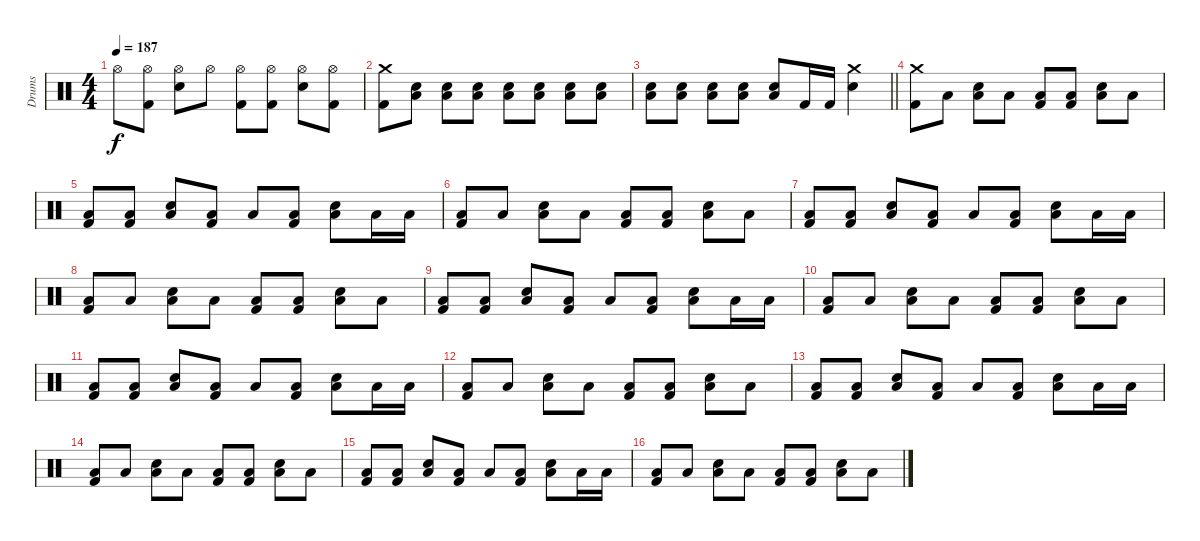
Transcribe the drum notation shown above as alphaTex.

\track ("Drums" "Drums") {instrument percussion}
\staff {score}
\articulation defaults
\ts (4 4)
\tempo 187
\clef neutral
\ks c "Hi-Hat (open)".8{dy f}
("Hi-Hat (open)" "Kick (hit) 2").8 ("Hi-Hat (open)" "Electric Snare (hit)").8 "Hi-Hat (open)".8 ("Hi-Hat (open)" "Kick (hit) 2").8 ("Hi-Hat (open)" "Kick (hit) 2").8 ("Hi-Hat (open)" "Electric Snare (hit)").8 ("Hi-Hat (open)" "Kick (hit) 2").8 |
("Crash medium (hit)" "Kick (hit) 2").8 ("Electric Snare (hit)" "Low Floor Tom (hit)").8 ("Electric Snare (hit)" "Low Floor Tom (hit)").8 ("Electric Snare (hit)" "Low Floor Tom (hit)").8 ("Electric Snare (hit)" "Low Floor Tom (hit)").8 ("Electric Snare (hit)" "Low Floor Tom (hit)").8 ("Electric Snare (hit)" "Low Floor Tom (hit)").8 ("Electric Snare (hit)" "Low Floor Tom (hit)").8 |
\barLineRight lightlight
("Electric Snare (hit)" "Low Floor Tom (hit)").8 ("Electric Snare (hit)" "Low Floor Tom (hit)").8 ("Electric Snare (hit)" "Low Floor Tom (hit)").8 ("Electric Snare (hit)" "Low Floor Tom (hit)").8 ("Electric Snare (hit)" "Low Floor Tom (hit)").8 "Kick (hit) 2".16 "Kick (hit) 2".16 ("Crash medium (hit)" "Electric Snare (hit)").4 |
("Crash medium (hit)" "Kick (hit) 2").8 "Low Floor Tom (hit)".8 ("Electric Snare (hit)" "Low Floor Tom (hit)").8 "Low Floor Tom (hit)".8 ("Low Floor Tom (hit)" "Kick (hit) 2").8 ("Low Floor Tom (hit)" "Kick (hit) 2").8 ("Electric Snare (hit)" "Low Floor Tom (hit)").8 "Low Floor Tom (hit)".8 |
("Low Floor Tom (hit)" "Kick (hit) 2").8 ("Low Floor Tom (hit)" "Kick (hit) 2").8 ("Electric Snare (hit)" "Low Floor Tom (hit)").8 ("Low Floor Tom (hit)" "Kick (hit) 2").8 "Low Floor Tom (hit)".8 ("Low Floor Tom (hit)" "Kick (hit) 2").8 ("Electric Snare (hit)" "Low Floor Tom (hit)").8 "Low Floor Tom (hit)".16 "Low Floor Tom (hit)".16 |
("Low Floor Tom (hit)" "Kick (hit) 2").8 "Low Floor Tom (hit)".8 ("Electric Snare (hit)" "Low Floor Tom (hit)").8 "Low Floor Tom (hit)".8 ("Low Floor Tom (hit)" "Kick (hit) 2").8 ("Low Floor Tom (hit)" "Kick (hit) 2").8 ("Electric Snare (hit)" "Low Floor Tom (hit)").8 "Low Floor Tom (hit)".8 |
("Low Floor Tom (hit)" "Kick (hit) 2").8 ("Low Floor Tom (hit)" "Kick (hit) 2").8 ("Electric Snare (hit)" "Low Floor Tom (hit)").8 ("Low Floor Tom (hit)" "Kick (hit) 2").8 "Low Floor Tom (hit)".8 ("Low Floor Tom (hit)" "Kick (hit) 2").8 ("Electric Snare (hit)" "Low Floor Tom (hit)").8 "Low Floor Tom (hit)".16 "Low Floor Tom (hit)".16 |
("Low Floor Tom (hit)" "Kick (hit) 2").8 "Low Floor Tom (hit)".8 ("Electric Snare (hit)" "Low Floor Tom (hit)").8 "Low Floor Tom (hit)".8 ("Low Floor Tom (hit)" "Kick (hit) 2").8 ("Low Floor Tom (hit)" "Kick (hit) 2").8 ("Electric Snare (hit)" "Low Floor Tom (hit)").8 "Low Floor Tom (hit)".8 |
("Low Floor Tom (hit)" "Kick (hit) 2").8 ("Low Floor Tom (hit)" "Kick (hit) 2").8 ("Electric Snare (hit)" "Low Floor Tom (hit)").8 ("Low Floor Tom (hit)" "Kick (hit) 2").8 "Low Floor Tom (hit)".8 ("Low Floor Tom (hit)" "Kick (hit) 2").8 ("Electric Snare (hit)" "Low Floor Tom (hit)").8 "Low Floor Tom (hit)".16 "Low Floor Tom (hit)".16 |
("Low Floor Tom (hit)" "Kick (hit) 2").8 "Low Floor Tom (hit)".8 ("Electric Snare (hit)" "Low Floor Tom (hit)").8 "Low Floor Tom (hit)".8 ("Low Floor Tom (hit)" "Kick (hit) 2").8 ("Low Floor Tom (hit)" "Kick (hit) 2").8 ("Electric Snare (hit)" "Low Floor Tom (hit)").8 "Low Floor Tom (hit)".8 |
("Low Floor Tom (hit)" "Kick (hit) 2").8 ("Low Floor Tom (hit)" "Kick (hit) 2").8 ("Electric Snare (hit)" "Low Floor Tom (hit)").8 ("Low Floor Tom (hit)" "Kick (hit) 2").8 "Low Floor Tom (hit)".8 ("Low Floor Tom (hit)" "Kick (hit) 2").8 ("Electric Snare (hit)" "Low Floor Tom (hit)").8 "Low Floor Tom (hit)".16 "Low Floor Tom (hit)".16 |
("Low Floor Tom (hit)" "Kick (hit) 2").8 "Low Floor Tom (hit)".8 ("Electric Snare (hit)" "Low Floor Tom (hit)").8 "Low Floor Tom (hit)".8 ("Low Floor Tom (hit)" "Kick (hit) 2").8 ("Low Floor Tom (hit)" "Kick (hit) 2").8 ("Electric Snare (hit)" "Low Floor Tom (hit)").8 "Low Floor Tom (hit)".8 |
("Low Floor Tom (hit)" "Kick (hit) 2").8 ("Low Floor Tom (hit)" "Kick (hit) 2").8 ("Electric Snare (hit)" "Low Floor Tom (hit)").8 ("Low Floor Tom (hit)" "Kick (hit) 2").8 "Low Floor Tom (hit)".8 ("Low Floor Tom (hit)" "Kick (hit) 2").8 ("Electric Snare (hit)" "Low Floor Tom (hit)").8 "Low Floor Tom (hit)".16 "Low Floor Tom (hit)".16 |
("Low Floor Tom (hit)" "Kick (hit) 2").8 "Low Floor Tom (hit)".8 ("Electric Snare (hit)" "Low Floor Tom (hit)").8 "Low Floor Tom (hit)".8 ("Low Floor Tom (hit)" "Kick (hit) 2").8 ("Low Floor Tom (hit)" "Kick (hit) 2").8 ("Electric Snare (hit)" "Low Floor Tom (hit)").8 "Low Floor Tom (hit)".8 |
("Low Floor Tom (hit)" "Kick (hit) 2").8 ("Low Floor Tom (hit)" "Kick (hit) 2").8 ("Electric Snare (hit)" "Low Floor Tom (hit)").8 ("Low Floor Tom (hit)" "Kick (hit) 2").8 "Low Floor Tom (hit)".8 ("Low Floor Tom (hit)" "Kick (hit) 2").8 ("Electric Snare (hit)" "Low Floor Tom (hit)").8 "Low Floor Tom (hit)".16 "Low Floor Tom (hit)".16 |
("Low Floor Tom (hit)" "Kick (hit) 2").8 "Low Floor Tom (hit)".8 ("Electric Snare (hit)" "Low Floor Tom (hit)").8 "Low Floor Tom (hit)".8 ("Low Floor Tom (hit)" "Kick (hit) 2").8 ("Low Floor Tom (hit)" "Kick (hit) 2").8 ("Electric Snare (hit)" "Low Floor Tom (hit)").8 "Low Floor Tom (hit)".8
